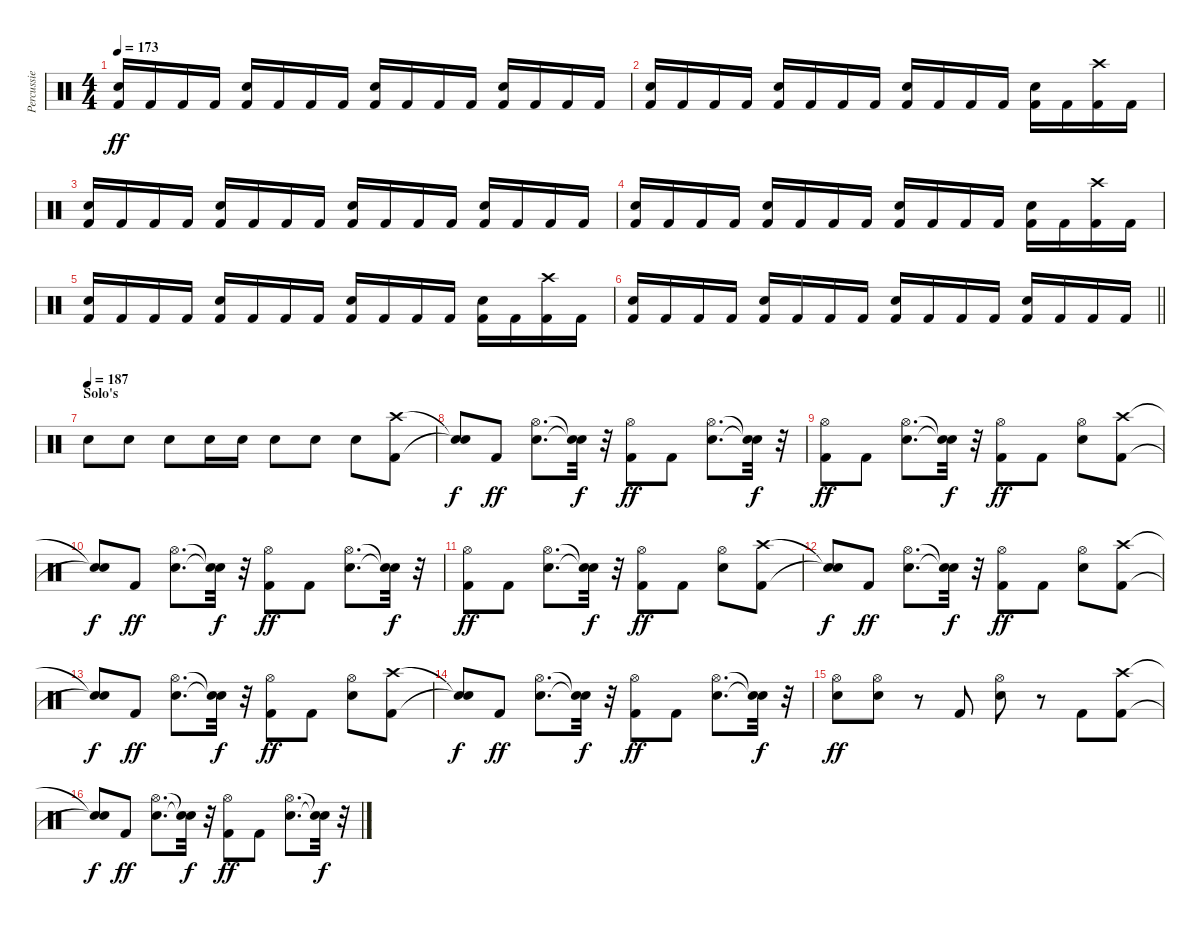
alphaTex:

\track ("Percussie" "Percussie") {instrument percussion}
\staff {score}
\articulation defaults
\ts (4 4)
\tempo 173
\clef neutral
\ks c
("Kick (hit) 2" "Snare (hit) 2").16{dy ff} "Kick (hit) 2".16 "Kick (hit) 2".16 "Kick (hit) 2".16 ("Kick (hit) 2" "Snare (hit) 2").16 "Kick (hit) 2".16 "Kick (hit) 2".16 "Kick (hit) 2".16 ("Kick (hit) 2" "Snare (hit) 2").16 "Kick (hit) 2".16 "Kick (hit) 2".16 "Kick (hit) 2".16 ("Kick (hit) 2" "Snare (hit) 2").16 "Kick (hit) 2".16 "Kick (hit) 2".16 "Kick (hit) 2".16 |
("Kick (hit) 2" "Snare (hit) 2").16 "Kick (hit) 2".16 "Kick (hit) 2".16 "Kick (hit) 2".16 ("Kick (hit) 2" "Snare (hit) 2").16 "Kick (hit) 2".16 "Kick (hit) 2".16 "Kick (hit) 2".16 ("Kick (hit) 2" "Snare (hit) 2").16 "Kick (hit) 2".16 "Kick (hit) 2".16 "Kick (hit) 2".16 ("Kick (hit) 2" "Snare (hit) 2").16 "Kick (hit) 2".16 ("Kick (hit) 2" "Crash high (hit)").16 "Kick (hit) 2".16 |
("Kick (hit) 2" "Snare (hit) 2").16 "Kick (hit) 2".16 "Kick (hit) 2".16 "Kick (hit) 2".16 ("Kick (hit) 2" "Snare (hit) 2").16 "Kick (hit) 2".16 "Kick (hit) 2".16 "Kick (hit) 2".16 ("Kick (hit) 2" "Snare (hit) 2").16 "Kick (hit) 2".16 "Kick (hit) 2".16 "Kick (hit) 2".16 ("Kick (hit) 2" "Snare (hit) 2").16 "Kick (hit) 2".16 "Kick (hit) 2".16 "Kick (hit) 2".16 |
("Kick (hit) 2" "Snare (hit) 2").16 "Kick (hit) 2".16 "Kick (hit) 2".16 "Kick (hit) 2".16 ("Kick (hit) 2" "Snare (hit) 2").16 "Kick (hit) 2".16 "Kick (hit) 2".16 "Kick (hit) 2".16 ("Kick (hit) 2" "Snare (hit) 2").16 "Kick (hit) 2".16 "Kick (hit) 2".16 "Kick (hit) 2".16 ("Kick (hit) 2" "Snare (hit) 2").16 "Kick (hit) 2".16 ("Kick (hit) 2" "Crash high (hit)").16 "Kick (hit) 2".16 |
("Kick (hit) 2" "Snare (hit) 2").16 "Kick (hit) 2".16 "Kick (hit) 2".16 "Kick (hit) 2".16 ("Kick (hit) 2" "Snare (hit) 2").16 "Kick (hit) 2".16 "Kick (hit) 2".16 "Kick (hit) 2".16 ("Kick (hit) 2" "Snare (hit) 2").16 "Kick (hit) 2".16 "Kick (hit) 2".16 "Kick (hit) 2".16 ("Kick (hit) 2" "Snare (hit) 2").16 "Kick (hit) 2".16 ("Kick (hit) 2" "Crash high (hit)").16 "Kick (hit) 2".16 |
\barLineRight lightlight
("Kick (hit) 2" "Snare (hit) 2").16 "Kick (hit) 2".16 "Kick (hit) 2".16 "Kick (hit) 2".16 ("Kick (hit) 2" "Snare (hit) 2").16 "Kick (hit) 2".16 "Kick (hit) 2".16 "Kick (hit) 2".16 ("Kick (hit) 2" "Snare (hit) 2").16 "Kick (hit) 2".16 "Kick (hit) 2".16 "Kick (hit) 2".16 ("Kick (hit) 2" "Snare (hit) 2").16 "Kick (hit) 2".16 "Kick (hit) 2".16 "Kick (hit) 2".16 |
\section ("" "Solo's")
\tempo (187)
"Snare (hit) 2".8 "Snare (hit) 2".8 "Snare (hit) 2".8 "Snare (hit) 2".16 "Snare (hit) 2".16 "Snare (hit) 2".8 "Snare (hit) 2".8 "Snare (hit) 2".8 ("Kick (hit) 2" "Crash high (hit)").8 |
("Snare (hit)"{t} "Snare (hit)"{t}).8{dy f} "Kick (hit) 2".8{dy ff} ("Snare (hit) 2" "Hi-Hat (open)").8{d} ("Snare (hit)"{t} "Snare (hit)"{t}).32{dy f} r.32 ("Kick (hit) 2" "Hi-Hat (open)").8{dy ff} "Kick (hit) 2".8 ("Snare (hit) 2" "Hi-Hat (open)").8{d} ("Snare (hit)"{t} "Snare (hit)"{t}).32{dy f} r.32 |
("Kick (hit) 2" "Hi-Hat (open)").8{dy ff} "Kick (hit) 2".8 ("Snare (hit) 2" "Hi-Hat (open)").8{d} ("Snare (hit)"{t} "Snare (hit)"{t}).32{dy f} r.32 ("Kick (hit) 2" "Hi-Hat (open)").8{dy ff} "Kick (hit) 2".8 ("Snare (hit) 2" "Hi-Hat (open)").8 ("Kick (hit) 2" "Crash high (hit)").8 |
("Snare (hit)"{t} "Snare (hit)"{t}).8{dy f} "Kick (hit) 2".8{dy ff} ("Snare (hit) 2" "Hi-Hat (open)").8{d} ("Snare (hit)"{t} "Snare (hit)"{t}).32{dy f} r.32 ("Kick (hit) 2" "Hi-Hat (open)").8{dy ff} "Kick (hit) 2".8 ("Snare (hit) 2" "Hi-Hat (open)").8{d} ("Snare (hit)"{t} "Snare (hit)"{t}).32{dy f} r.32 |
("Kick (hit) 2" "Hi-Hat (open)").8{dy ff} "Kick (hit) 2".8 ("Snare (hit) 2" "Hi-Hat (open)").8{d} ("Snare (hit)"{t} "Snare (hit)"{t}).32{dy f} r.32 ("Kick (hit) 2" "Hi-Hat (open)").8{dy ff} "Kick (hit) 2".8 ("Snare (hit) 2" "Hi-Hat (open)").8 ("Kick (hit) 2" "Crash high (hit)").8 |
("Snare (hit)"{t} "Snare (hit)"{t}).8{dy f} "Kick (hit) 2".8{dy ff} ("Snare (hit) 2" "Hi-Hat (open)").8{d} ("Snare (hit)"{t} "Snare (hit)"{t}).32{dy f} r.32 ("Kick (hit) 2" "Hi-Hat (open)").8{dy ff} "Kick (hit) 2".8 ("Snare (hit) 2" "Hi-Hat (open)").8 ("Kick (hit) 2" "Crash high (hit)").8 |
("Snare (hit)"{t} "Snare (hit)"{t}).8{dy f} "Kick (hit) 2".8{dy ff} ("Snare (hit) 2" "Hi-Hat (open)").8{d} ("Snare (hit)"{t} "Snare (hit)"{t}).32{dy f} r.32 ("Kick (hit) 2" "Hi-Hat (open)").8{dy ff} "Kick (hit) 2".8 ("Snare (hit) 2" "Hi-Hat (open)").8 ("Kick (hit) 2" "Crash high (hit)").8 |
("Snare (hit)"{t} "Snare (hit)"{t}).8{dy f} "Kick (hit) 2".8{dy ff} ("Snare (hit) 2" "Hi-Hat (open)").8{d} ("Snare (hit)"{t} "Snare (hit)"{t}).32{dy f} r.32 ("Kick (hit) 2" "Hi-Hat (open)").8{dy ff} "Kick (hit) 2".8 ("Snare (hit) 2" "Hi-Hat (open)").8{d} ("Snare (hit)"{t} "Snare (hit)"{t}).32{dy f} r.32 |
("Snare (hit) 2" "Hi-Hat (open)").8{dy ff} ("Snare (hit) 2" "Hi-Hat (open)").8 r.8 "Kick (hit) 2".8 ("Snare (hit) 2" "Hi-Hat (open)").8 r.8 "Kick (hit) 2".8 ("Kick (hit) 2" "Crash high (hit)").8 |
("Snare (hit)"{t} "Snare (hit)"{t}).8{dy f} "Kick (hit) 2".8{dy ff} ("Snare (hit) 2" "Hi-Hat (open)").8{d} ("Snare (hit)"{t} "Snare (hit)"{t}).32{dy f} r.32 ("Kick (hit) 2" "Hi-Hat (open)").8{dy ff} "Kick (hit) 2".8 ("Snare (hit) 2" "Hi-Hat (open)").8{d} ("Snare (hit)"{t} "Snare (hit)"{t}).32{dy f} r.32
